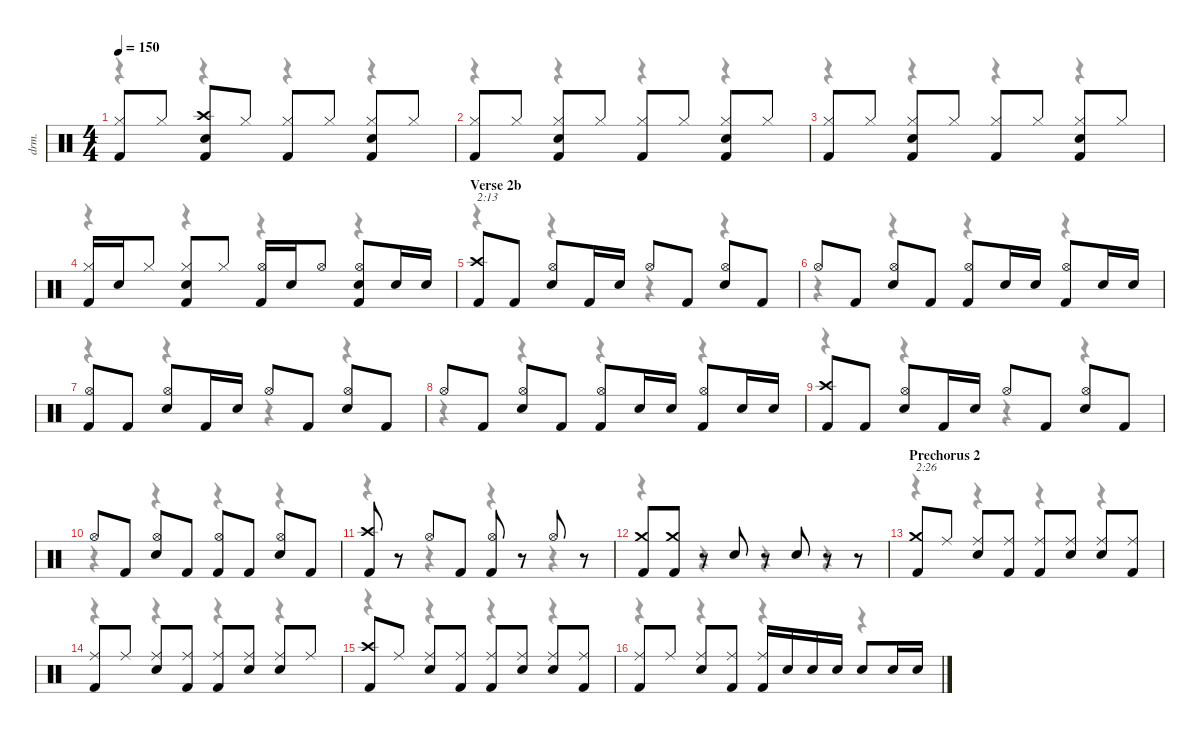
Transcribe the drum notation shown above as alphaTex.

\defaultSystemsLayout 4
\hideDynamics
\bracketExtendMode nobrackets
\otherSystemsTrackNameOrientation horizontal
\track ("Drums" "drm.") {instrument percussion}
\staff {score}
\articulation defaults
\voice
\ts (4 4)
\tempo 150
\clef neutral
\ks c
("Hi-Hat (closed)" "Kick (hit) 2").8{dy f beam Up} "Hi-Hat (closed)".8{beam Up} ("Crash high (hit)" "Snare (hit) 2" "Kick (hit) 2").8{dy fff beam Up} "Hi-Hat (closed)".8{dy f beam Up} ("Hi-Hat (closed)" "Kick (hit) 2").8{beam Up} "Hi-Hat (closed)".8{beam Up} ("Hi-Hat (closed)" "Snare (hit) 2" "Kick (hit) 2").8{beam Up} "Hi-Hat (closed)".8{beam Up} |
("Hi-Hat (closed)" "Kick (hit) 2").8{beam Up} "Hi-Hat (closed)".8{beam Up} ("Hi-Hat (closed)" "Snare (hit) 2" "Kick (hit) 2").8{beam Up} "Hi-Hat (closed)".8{beam Up} ("Hi-Hat (closed)" "Kick (hit) 2").8{beam Up} "Hi-Hat (closed)".8{beam Up} ("Hi-Hat (closed)" "Snare (hit) 2" "Kick (hit) 2").8{beam Up} "Hi-Hat (closed)".8{beam Up} |
("Hi-Hat (closed)" "Kick (hit) 2").8{beam Up} "Hi-Hat (closed)".8{beam Up} ("Hi-Hat (closed)" "Snare (hit) 2" "Kick (hit) 2").8{beam Up} "Hi-Hat (closed)".8{beam Up} ("Hi-Hat (closed)" "Kick (hit) 2").8{beam Up} "Hi-Hat (closed)".8{beam Up} ("Hi-Hat (closed)" "Snare (hit) 2" "Kick (hit) 2").8{beam Up} "Hi-Hat (closed)".8{beam Up} |
("Hi-Hat (closed)" "Kick (hit) 2").16{beam Up} "Snare (hit) 2".16{dy fff beam Up} "Hi-Hat (closed)".8{dy f beam Up} ("Hi-Hat (closed)" "Snare (hit) 2" "Kick (hit) 2").8{beam Up} "Hi-Hat (closed)".8{beam Up} ("Hi-Hat (open)" "Kick (hit) 2").16{beam Up} "Snare (hit) 2".16{dy fff beam Up} "Hi-Hat (open)".8{dy f beam Up} ("Hi-Hat (open)" "Snare (hit) 2" "Kick (hit) 2").8{beam Up} "Snare (hit) 2".16{dy fff beam Up} "Snare (hit) 2".16{beam Up} |
\section ("" "Verse 2b")
("Crash high (hit)" "Kick (hit) 2").8{txt "2:13" beam Up} "Kick (hit) 2".8{beam Up} ("Hi-Hat (open)" "Snare (hit) 2").8{dy f beam Up} "Kick (hit) 2".16{dy fff beam Up} "Snare (hit) 2".16{beam Up} "Hi-Hat (open)".8{dy f beam Up} "Kick (hit) 2".8{dy fff beam Up} ("Hi-Hat (open)" "Snare (hit) 2").8{dy f beam Up} "Kick (hit) 2".8{dy fff beam Up} |
"Hi-Hat (open)".8{dy f beam Up} "Kick (hit) 2".8{dy fff beam Up} ("Hi-Hat (open)" "Snare (hit) 2").8{dy f beam Up} "Kick (hit) 2".8{dy fff beam Up} ("Hi-Hat (open)" "Kick (hit) 2").8{dy f beam Up} "Snare (hit) 2".16{dy fff beam Up} "Snare (hit) 2".16{beam Up} ("Hi-Hat (open)" "Kick (hit) 2").8{dy f beam Up} "Snare (hit) 2".16{dy fff beam Up} "Snare (hit) 2".16{beam Up} |
("Hi-Hat (open)" "Kick (hit) 2").8{dy f beam Up} "Kick (hit) 2".8{dy fff beam Up} ("Hi-Hat (open)" "Snare (hit) 2").8{dy f beam Up} "Kick (hit) 2".16{dy fff beam Up} "Snare (hit) 2".16{beam Up} "Hi-Hat (open)".8{dy f beam Up} "Kick (hit) 2".8{dy fff beam Up} ("Hi-Hat (open)" "Snare (hit) 2").8{dy f beam Up} "Kick (hit) 2".8{dy fff beam Up} |
"Hi-Hat (open)".8{dy f beam Up} "Kick (hit) 2".8{dy fff beam Up} ("Hi-Hat (open)" "Snare (hit) 2").8{dy f beam Up} "Kick (hit) 2".8{dy fff beam Up} ("Hi-Hat (open)" "Kick (hit) 2").8{dy f beam Up} "Snare (hit) 2".16{dy fff beam Up} "Snare (hit) 2".16{beam Up} ("Hi-Hat (open)" "Kick (hit) 2").8{dy f beam Up} "Snare (hit) 2".16{dy fff beam Up} "Snare (hit) 2".16{beam Up} |
("Crash high (hit)" "Kick (hit) 2").8{beam Up} "Kick (hit) 2".8{beam Up} ("Hi-Hat (open)" "Snare (hit) 2").8{dy f beam Up} "Kick (hit) 2".16{dy fff beam Up} "Snare (hit) 2".16{beam Up} "Hi-Hat (open)".8{dy f beam Up} "Kick (hit) 2".8{dy fff beam Up} ("Hi-Hat (open)" "Snare (hit) 2").8{dy f beam Up} "Kick (hit) 2".8{dy fff beam Up} |
"Hi-Hat (open)".8{dy f beam Up} "Kick (hit) 2".8{dy fff beam Up} ("Hi-Hat (open)" "Snare (hit) 2").8{dy f beam Up} "Kick (hit) 2".8{dy fff beam Up} ("Hi-Hat (open)" "Kick (hit) 2").8{dy f beam Up} "Kick (hit) 2".8{dy fff beam Up} ("Hi-Hat (open)" "Snare (hit) 2").8{dy f beam Up} "Kick (hit) 2".8{dy fff beam Up} |
("Crash high (hit)" "Kick (hit) 2").8{beam Up} r.8{beam Up} "Hi-Hat (open)".8{dy f beam Up} "Kick (hit) 2".8{dy fff beam Up} ("Hi-Hat (open)" "Kick (hit) 2").8{dy f beam Up} r.8{beam Up} "Hi-Hat (open)".8{beam Up} r.8{beam Up} |
("Crash medium (hit)" "Kick (hit) 2").8{dy fff beam Up} ("Crash medium (hit)" "Kick (hit) 2").8{beam Up} r.8{beam Up} "Snare (hit) 2".8{beam Up} r.8{beam Up} "Snare (hit) 2".8{beam Up} r.8{beam Up} r.8{beam Up} |
\section ("" "Prechorus 2")
("Crash medium (hit)" "Kick (hit) 2").8{txt "2:26" beam Up} "Ride (middle)".8{dy f beam Up} ("Ride (middle)" "Snare (hit) 2").8{beam Up} ("Ride (middle)" "Kick (hit) 2").8{beam Up} ("Ride (middle)" "Kick (hit) 2").8{beam Up} ("Ride (middle)" "Snare (hit) 2").8{beam Up} ("Ride (middle)" "Snare (hit) 2").8{beam Up} ("Ride (middle)" "Kick (hit) 2").8{beam Up} |
("Ride (middle)" "Kick (hit) 2").8{beam Up} "Ride (middle)".8{beam Up} ("Ride (middle)" "Snare (hit) 2").8{beam Up} ("Ride (middle)" "Kick (hit) 2").8{beam Up} ("Ride (middle)" "Kick (hit) 2").8{beam Up} ("Ride (middle)" "Snare (hit) 2").8{beam Up} ("Ride (middle)" "Snare (hit) 2").8{beam Up} "Ride (middle)".8{beam Up} |
("Crash high (hit)" "Kick (hit) 2").8{dy fff beam Up} "Ride (middle)".8{dy f beam Up} ("Ride (middle)" "Snare (hit) 2").8{beam Up} ("Ride (middle)" "Kick (hit) 2").8{beam Up} ("Ride (middle)" "Kick (hit) 2").8{beam Up} ("Ride (middle)" "Snare (hit) 2").8{beam Up} ("Ride (middle)" "Snare (hit) 2").8{beam Up} ("Ride (middle)" "Kick (hit) 2").8{beam Up} |
("Ride (middle)" "Kick (hit) 2").8{beam Up} "Ride (middle)".8{beam Up} ("Ride (middle)" "Snare (hit) 2").8{beam Up} ("Ride (middle)" "Kick (hit) 2").8{beam Up} ("Ride (middle)" "Kick (hit) 2").16{beam Up} "Snare (hit) 2".16{dy fff beam Up} "Snare (hit) 2".16{beam Up} "Snare (hit) 2".16{beam Up} "Snare (hit) 2".8{beam Up} "Snare (hit) 2".16{beam Up} "Snare (hit) 2".16{beam Up}
\voice
\clef neutral
\ottava regular
\simile none
\ks c
r.4{dy mf beam Down} r.4{beam Down} r.4{beam Down} r.4{beam Down} |
r.4{beam Down} r.4{beam Down} r.4{beam Down} r.4{beam Down} |
r.4{beam Down} r.4{beam Down} r.4{beam Down} r.4{beam Down} |
r.4{beam Down} r.4{beam Down} r.4{beam Down} r.4{beam Down} |
r.4{beam Down} r.4{beam Down} r.4{beam Down} r.4{beam Down} |
r.4{beam Down} r.4{beam Down} r.4{beam Down} r.4{beam Down} |
r.4{beam Down} r.4{beam Down} r.4{beam Down} r.4{beam Down} |
r.4{beam Down} r.4{beam Down} r.4{beam Down} r.4{beam Down} |
r.4{beam Down} r.4{beam Down} r.4{beam Down} r.4{beam Down} |
r.4{beam Down} r.4{beam Down} r.4{beam Down} r.4{beam Down} |
r.4{beam Down} r.4{beam Down} r.4{beam Down} r.4{beam Down} |
r.4{beam Down} r.4{beam Down} r.4{beam Down} r.4{beam Down} |
r.4{beam Down} r.4{beam Down} r.4{beam Down} r.4{beam Down} |
r.4{beam Down} r.4{beam Down} r.4{beam Down} r.4{beam Down} |
r.4{beam Down} r.4{beam Down} r.4{beam Down} r.4{beam Down} |
r.4{beam Down} r.4{beam Down} r.4{beam Down} r.4{beam Down}
